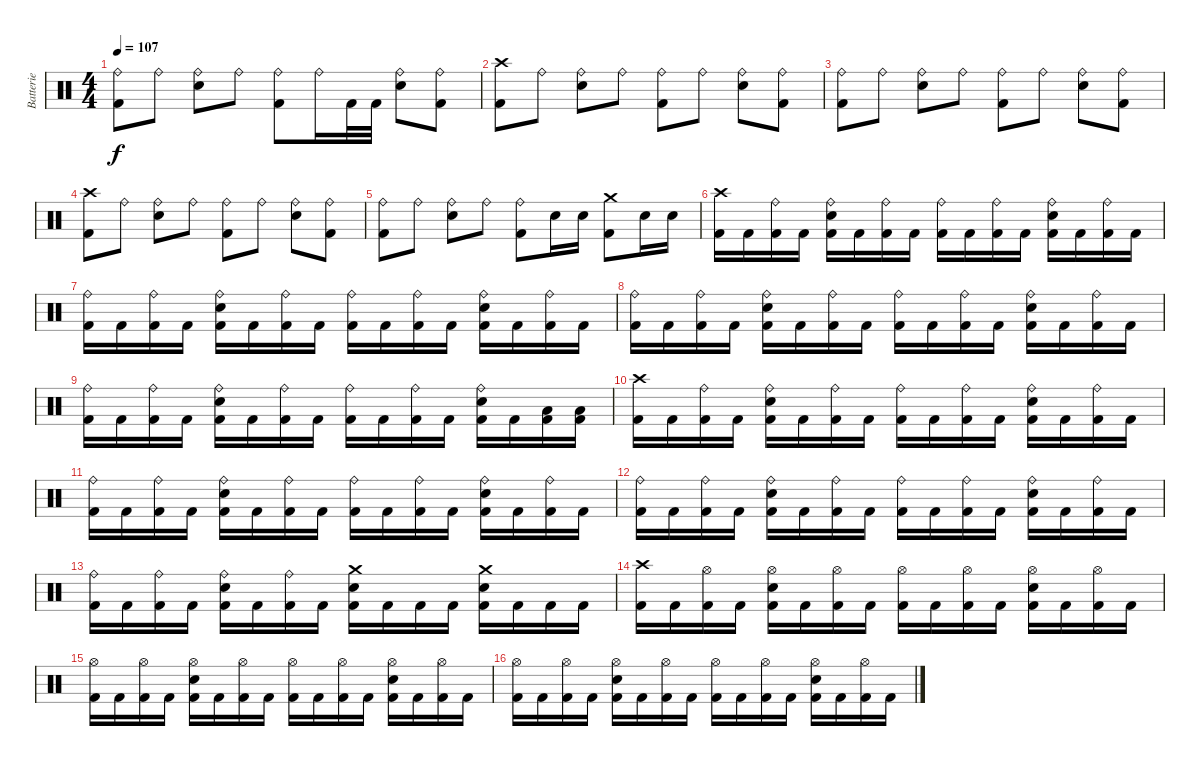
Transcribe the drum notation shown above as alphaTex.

\track ("Batterie" "Batterie") {instrument percussion}
\staff {score}
\articulation defaults
\ts (4 4)
\tempo 107
\clef neutral
\ks c
("Ride (bell)" "Kick (hit) 2").8{dy f} "Ride (bell)".8 ("Ride (bell)" "Electric Snare (hit)").8 "Ride (bell)".8 ("Ride (bell)" "Kick (hit) 2").8 "Ride (bell)".16 "Kick (hit) 2".32 "Kick (hit) 2".32 ("Ride (bell)" "Electric Snare (hit)").8 ("Ride (bell)" "Kick (hit) 2").8 |
("Crash high (hit)" "Kick (hit) 2").8 "Ride (bell)".8 ("Ride (bell)" "Electric Snare (hit)").8 "Ride (bell)".8 ("Ride (bell)" "Kick (hit) 2").8 "Ride (bell)".8 ("Ride (bell)" "Electric Snare (hit)").8 ("Ride (bell)" "Kick (hit) 2").8 |
("Ride (bell)" "Kick (hit) 2").8 "Ride (bell)".8 ("Ride (bell)" "Electric Snare (hit)").8 "Ride (bell)".8 ("Ride (bell)" "Kick (hit) 2").8 "Ride (bell)".8 ("Ride (bell)" "Electric Snare (hit)").8 ("Ride (bell)" "Kick (hit) 2").8 |
("Crash high (hit)" "Kick (hit) 2").8 "Ride (bell)".8 ("Ride (bell)" "Electric Snare (hit)").8 "Ride (bell)".8 ("Ride (bell)" "Kick (hit) 2").8 "Ride (bell)".8 ("Ride (bell)" "Electric Snare (hit)").8 ("Ride (bell)" "Kick (hit) 2").8 |
("Ride (bell)" "Kick (hit) 2").8 "Ride (bell)".8 ("Ride (bell)" "Electric Snare (hit)").8 "Ride (bell)".8 ("Ride (bell)" "Kick (hit) 2").8 "Electric Snare (hit)".16 "Electric Snare (hit)".16 ("Crash medium (hit)" "Kick (hit) 2").8 "Electric Snare (hit)".16 "Electric Snare (hit)".16 |
("Crash high (hit)" "Kick (hit) 2").16 "Kick (hit) 2".16 ("Ride (bell)" "Kick (hit) 2").16 "Kick (hit) 2".16 ("Ride (bell)" "Electric Snare (hit)" "Kick (hit) 2").16 "Kick (hit) 2".16 ("Ride (bell)" "Kick (hit) 2").16 "Kick (hit) 2".16 ("Ride (bell)" "Kick (hit) 2").16 "Kick (hit) 2".16 ("Ride (bell)" "Kick (hit) 2").16 "Kick (hit) 2".16 ("Ride (bell)" "Electric Snare (hit)" "Kick (hit) 2").16 "Kick (hit) 2".16 ("Ride (bell)" "Kick (hit) 2").16 "Kick (hit) 2".16 |
("Ride (bell)" "Kick (hit) 2").16 "Kick (hit) 2".16 ("Ride (bell)" "Kick (hit) 2").16 "Kick (hit) 2".16 ("Ride (bell)" "Electric Snare (hit)" "Kick (hit) 2").16 "Kick (hit) 2".16 ("Ride (bell)" "Kick (hit) 2").16 "Kick (hit) 2".16 ("Ride (bell)" "Kick (hit) 2").16 "Kick (hit) 2".16 ("Ride (bell)" "Kick (hit) 2").16 "Kick (hit) 2".16 ("Ride (bell)" "Electric Snare (hit)" "Kick (hit) 2").16 "Kick (hit) 2".16 ("Ride (bell)" "Kick (hit) 2").16 "Kick (hit) 2".16 |
("Ride (bell)" "Kick (hit) 2").16 "Kick (hit) 2".16 ("Ride (bell)" "Kick (hit) 2").16 "Kick (hit) 2".16 ("Ride (bell)" "Electric Snare (hit)" "Kick (hit) 2").16 "Kick (hit) 2".16 ("Ride (bell)" "Kick (hit) 2").16 "Kick (hit) 2".16 ("Ride (bell)" "Kick (hit) 2").16 "Kick (hit) 2".16 ("Ride (bell)" "Kick (hit) 2").16 "Kick (hit) 2".16 ("Ride (bell)" "Electric Snare (hit)" "Kick (hit) 2").16 "Kick (hit) 2".16 ("Ride (bell)" "Kick (hit) 2").16 "Kick (hit) 2".16 |
("Ride (bell)" "Kick (hit) 2").16 "Kick (hit) 2".16 ("Ride (bell)" "Kick (hit) 2").16 "Kick (hit) 2".16 ("Ride (bell)" "Electric Snare (hit)" "Kick (hit) 2").16 "Kick (hit) 2".16 ("Ride (bell)" "Kick (hit) 2").16 "Kick (hit) 2".16 ("Ride (bell)" "Kick (hit) 2").16 "Kick (hit) 2".16 ("Ride (bell)" "Kick (hit) 2").16 "Kick (hit) 2".16 ("Ride (bell)" "Electric Snare (hit)" "Kick (hit) 2").16 "Kick (hit) 2".16 ("Low Tom (hit)" "Kick (hit) 2").16 ("Low Tom (hit)" "Kick (hit) 2").16 |
("Crash high (hit)" "Kick (hit) 2").16 "Kick (hit) 2".16 ("Ride (bell)" "Kick (hit) 2").16 "Kick (hit) 2".16 ("Ride (bell)" "Electric Snare (hit)" "Kick (hit) 2").16 "Kick (hit) 2".16 ("Ride (bell)" "Kick (hit) 2").16 "Kick (hit) 2".16 ("Ride (bell)" "Kick (hit) 2").16 "Kick (hit) 2".16 ("Ride (bell)" "Kick (hit) 2").16 "Kick (hit) 2".16 ("Ride (bell)" "Electric Snare (hit)" "Kick (hit) 2").16 "Kick (hit) 2".16 ("Ride (bell)" "Kick (hit) 2").16 "Kick (hit) 2".16 |
("Ride (bell)" "Kick (hit) 2").16 "Kick (hit) 2".16 ("Ride (bell)" "Kick (hit) 2").16 "Kick (hit) 2".16 ("Ride (bell)" "Electric Snare (hit)" "Kick (hit) 2").16 "Kick (hit) 2".16 ("Ride (bell)" "Kick (hit) 2").16 "Kick (hit) 2".16 ("Ride (bell)" "Kick (hit) 2").16 "Kick (hit) 2".16 ("Ride (bell)" "Kick (hit) 2").16 "Kick (hit) 2".16 ("Ride (bell)" "Electric Snare (hit)" "Kick (hit) 2").16 "Kick (hit) 2".16 ("Ride (bell)" "Kick (hit) 2").16 "Kick (hit) 2".16 |
("Ride (bell)" "Kick (hit) 2").16 "Kick (hit) 2".16 ("Ride (bell)" "Kick (hit) 2").16 "Kick (hit) 2".16 ("Ride (bell)" "Electric Snare (hit)" "Kick (hit) 2").16 "Kick (hit) 2".16 ("Ride (bell)" "Kick (hit) 2").16 "Kick (hit) 2".16 ("Ride (bell)" "Kick (hit) 2").16 "Kick (hit) 2".16 ("Ride (bell)" "Kick (hit) 2").16 "Kick (hit) 2".16 ("Ride (bell)" "Electric Snare (hit)" "Kick (hit) 2").16 "Kick (hit) 2".16 ("Ride (bell)" "Kick (hit) 2").16 "Kick (hit) 2".16 |
("Ride (bell)" "Kick (hit) 2").16 "Kick (hit) 2".16 ("Ride (bell)" "Kick (hit) 2").16 "Kick (hit) 2".16 ("Ride (bell)" "Electric Snare (hit)" "Kick (hit) 2").16 "Kick (hit) 2".16 ("Ride (bell)" "Kick (hit) 2").16 "Kick (hit) 2".16 ("Crash medium (hit)" "Electric Snare (hit)" "Kick (hit) 2").16 "Kick (hit) 2".16 "Kick (hit) 2".16 "Kick (hit) 2".16 ("Crash medium (hit)" "Electric Snare (hit)" "Kick (hit) 2").16 "Kick (hit) 2".16 "Kick (hit) 2".16 "Kick (hit) 2".16 |
("Crash high (hit)" "Kick (hit) 2").16 "Kick (hit) 2".16 ("Hi-Hat (open)" "Kick (hit) 2").16 "Kick (hit) 2".16 ("Hi-Hat (open)" "Electric Snare (hit)" "Kick (hit) 2").16 "Kick (hit) 2".16 ("Hi-Hat (open)" "Kick (hit) 2").16 "Kick (hit) 2".16 ("Hi-Hat (open)" "Kick (hit) 2").16 "Kick (hit) 2".16 ("Hi-Hat (open)" "Kick (hit) 2").16 "Kick (hit) 2".16 ("Hi-Hat (open)" "Electric Snare (hit)" "Kick (hit) 2").16 "Kick (hit) 2".16 ("Hi-Hat (open)" "Kick (hit) 2").16 "Kick (hit) 2".16 |
("Hi-Hat (open)" "Kick (hit) 2").16 "Kick (hit) 2".16 ("Hi-Hat (open)" "Kick (hit) 2").16 "Kick (hit) 2".16 ("Hi-Hat (open)" "Electric Snare (hit)" "Kick (hit) 2").16 "Kick (hit) 2".16 ("Hi-Hat (open)" "Kick (hit) 2").16 "Kick (hit) 2".16 ("Hi-Hat (open)" "Kick (hit) 2").16 "Kick (hit) 2".16 ("Hi-Hat (open)" "Kick (hit) 2").16 "Kick (hit) 2".16 ("Hi-Hat (open)" "Electric Snare (hit)" "Kick (hit) 2").16 "Kick (hit) 2".16 ("Hi-Hat (open)" "Kick (hit) 2").16 "Kick (hit) 2".16 |
("Hi-Hat (open)" "Kick (hit) 2").16 "Kick (hit) 2".16 ("Hi-Hat (open)" "Kick (hit) 2").16 "Kick (hit) 2".16 ("Hi-Hat (open)" "Electric Snare (hit)" "Kick (hit) 2").16 "Kick (hit) 2".16 ("Hi-Hat (open)" "Kick (hit) 2").16 "Kick (hit) 2".16 ("Hi-Hat (open)" "Kick (hit) 2").16 "Kick (hit) 2".16 ("Hi-Hat (open)" "Kick (hit) 2").16 "Kick (hit) 2".16 ("Hi-Hat (open)" "Electric Snare (hit)" "Kick (hit) 2").16 "Kick (hit) 2".16 ("Hi-Hat (open)" "Kick (hit) 2").16 "Kick (hit) 2".16
